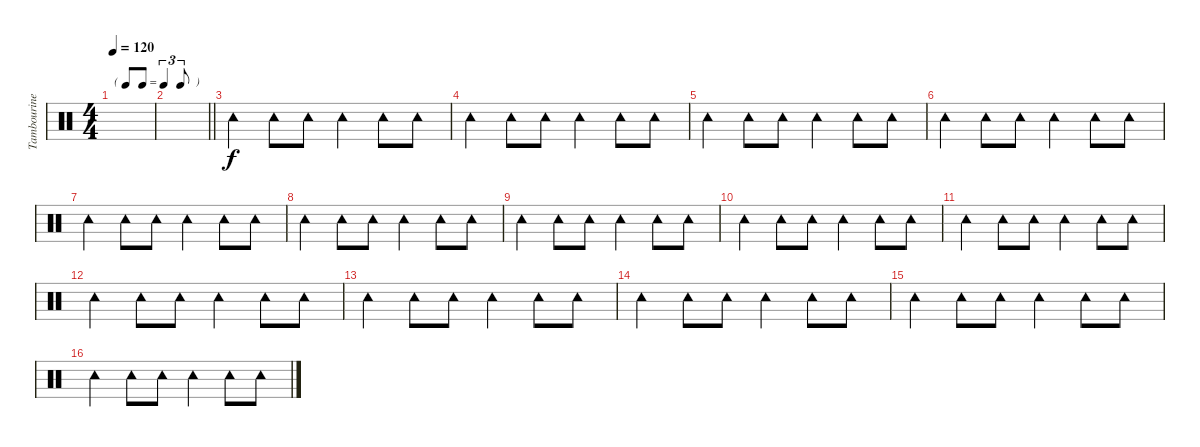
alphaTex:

\track ("Tambourine (George Harrison)" "Tambourine") {instrument percussion}
\staff {score}
\articulation defaults
\ts (4 4)
\tf triplet8th
\tempo 120
\clef neutral
\ks c
|
\barLineRight lightlight
|
"Tambourine (hit)".4 "Tambourine (hit)".8 "Tambourine (hit)".8 "Tambourine (hit)".4 "Tambourine (hit)".8 "Tambourine (hit)".8 |
"Tambourine (hit)".4 "Tambourine (hit)".8 "Tambourine (hit)".8 "Tambourine (hit)".4 "Tambourine (hit)".8 "Tambourine (hit)".8 |
"Tambourine (hit)".4 "Tambourine (hit)".8 "Tambourine (hit)".8 "Tambourine (hit)".4 "Tambourine (hit)".8 "Tambourine (hit)".8 |
"Tambourine (hit)".4 "Tambourine (hit)".8 "Tambourine (hit)".8 "Tambourine (hit)".4 "Tambourine (hit)".8 "Tambourine (hit)".8 |
"Tambourine (hit)".4 "Tambourine (hit)".8 "Tambourine (hit)".8 "Tambourine (hit)".4 "Tambourine (hit)".8 "Tambourine (hit)".8 |
"Tambourine (hit)".4 "Tambourine (hit)".8 "Tambourine (hit)".8 "Tambourine (hit)".4 "Tambourine (hit)".8 "Tambourine (hit)".8 |
"Tambourine (hit)".4 "Tambourine (hit)".8 "Tambourine (hit)".8 "Tambourine (hit)".4 "Tambourine (hit)".8 "Tambourine (hit)".8 |
"Tambourine (hit)".4 "Tambourine (hit)".8 "Tambourine (hit)".8 "Tambourine (hit)".4 "Tambourine (hit)".8 "Tambourine (hit)".8 |
"Tambourine (hit)".4 "Tambourine (hit)".8 "Tambourine (hit)".8 "Tambourine (hit)".4 "Tambourine (hit)".8 "Tambourine (hit)".8 |
"Tambourine (hit)".4 "Tambourine (hit)".8 "Tambourine (hit)".8 "Tambourine (hit)".4 "Tambourine (hit)".8 "Tambourine (hit)".8 |
"Tambourine (hit)".4 "Tambourine (hit)".8 "Tambourine (hit)".8 "Tambourine (hit)".4 "Tambourine (hit)".8 "Tambourine (hit)".8 |
"Tambourine (hit)".4 "Tambourine (hit)".8 "Tambourine (hit)".8 "Tambourine (hit)".4 "Tambourine (hit)".8 "Tambourine (hit)".8 |
"Tambourine (hit)".4 "Tambourine (hit)".8 "Tambourine (hit)".8 "Tambourine (hit)".4 "Tambourine (hit)".8 "Tambourine (hit)".8 |
"Tambourine (hit)".4 "Tambourine (hit)".8 "Tambourine (hit)".8 "Tambourine (hit)".4 "Tambourine (hit)".8 "Tambourine (hit)".8
